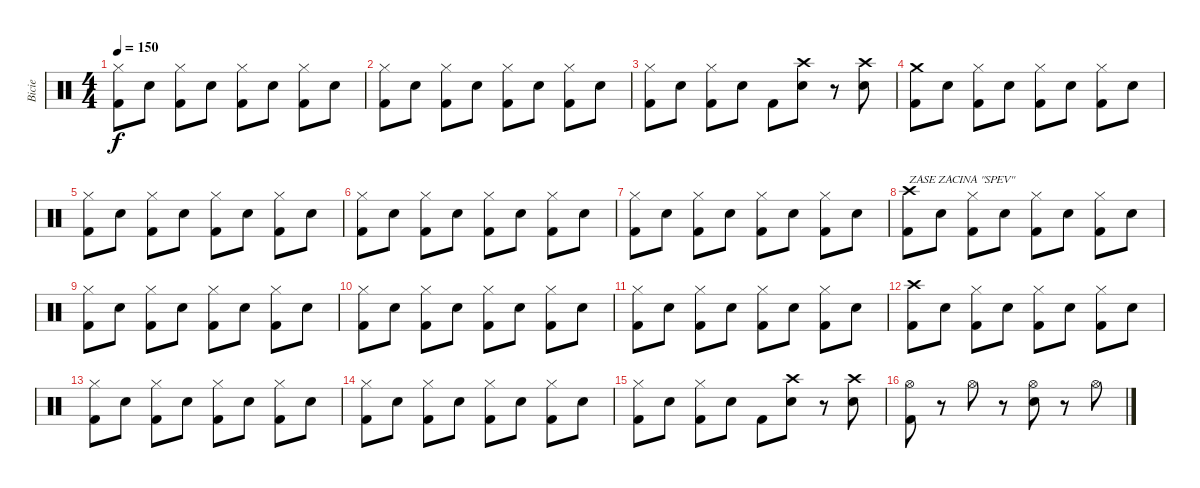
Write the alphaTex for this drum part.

\track ("Bicie" "Bicie") {instrument percussion}
\staff {score}
\articulation defaults
\ts (4 4)
\tempo 150
\clef neutral
\ks c
("Hi-Hat (closed)" "Kick (hit) 2").8{dy f} "Snare (hit) 2".8 ("Hi-Hat (closed)" "Kick (hit) 2").8 "Snare (hit) 2".8 ("Hi-Hat (closed)" "Kick (hit) 2").8 "Snare (hit) 2".8 ("Hi-Hat (closed)" "Kick (hit) 2").8 "Snare (hit) 2".8 |
("Hi-Hat (closed)" "Kick (hit) 2").8 "Snare (hit) 2".8 ("Hi-Hat (closed)" "Kick (hit) 2").8 "Snare (hit) 2".8 ("Hi-Hat (closed)" "Kick (hit) 2").8 "Snare (hit) 2".8 ("Hi-Hat (closed)" "Kick (hit) 2").8 "Snare (hit) 2".8 |
("Hi-Hat (closed)" "Kick (hit) 2").8 "Snare (hit) 2".8 ("Hi-Hat (closed)" "Kick (hit) 2").8 "Snare (hit) 2".8 "Kick (hit) 2".8 ("Crash high (hit)" "Snare (hit) 2").8 r.8 ("Crash high (hit)" "Snare (hit) 2").8 |
("Crash medium (hit)" "Kick (hit) 2").8 "Snare (hit) 2".8 ("Hi-Hat (closed)" "Kick (hit) 2").8 "Snare (hit) 2".8 ("Hi-Hat (closed)" "Kick (hit) 2").8 "Snare (hit) 2".8 ("Hi-Hat (closed)" "Kick (hit) 2").8 "Snare (hit) 2".8 |
("Hi-Hat (closed)" "Kick (hit) 2").8 "Snare (hit) 2".8 ("Hi-Hat (closed)" "Kick (hit) 2").8 "Snare (hit) 2".8 ("Hi-Hat (closed)" "Kick (hit) 2").8 "Snare (hit) 2".8 ("Hi-Hat (closed)" "Kick (hit) 2").8 "Snare (hit) 2".8 |
("Hi-Hat (closed)" "Kick (hit) 2").8 "Snare (hit) 2".8 ("Hi-Hat (closed)" "Kick (hit) 2").8 "Snare (hit) 2".8 ("Hi-Hat (closed)" "Kick (hit) 2").8 "Snare (hit) 2".8 ("Hi-Hat (closed)" "Kick (hit) 2").8 "Snare (hit) 2".8 |
("Hi-Hat (closed)" "Kick (hit) 2").8 "Snare (hit) 2".8 ("Hi-Hat (closed)" "Kick (hit) 2").8 "Snare (hit) 2".8 ("Hi-Hat (closed)" "Kick (hit) 2").8 "Snare (hit) 2".8 ("Hi-Hat (closed)" "Kick (hit) 2").8 "Snare (hit) 2".8 |
("Crash high (hit)" "Kick (hit) 2").8{txt "ZASE ZACINA \"SPEV\""} "Snare (hit) 2".8 ("Hi-Hat (closed)" "Kick (hit) 2").8 "Snare (hit) 2".8 ("Hi-Hat (closed)" "Kick (hit) 2").8 "Snare (hit) 2".8 ("Hi-Hat (closed)" "Kick (hit) 2").8 "Snare (hit) 2".8 |
("Hi-Hat (closed)" "Kick (hit) 2").8 "Snare (hit) 2".8 ("Hi-Hat (closed)" "Kick (hit) 2").8 "Snare (hit) 2".8 ("Hi-Hat (closed)" "Kick (hit) 2").8 "Snare (hit) 2".8 ("Hi-Hat (closed)" "Kick (hit) 2").8 "Snare (hit) 2".8 |
("Hi-Hat (closed)" "Kick (hit) 2").8 "Snare (hit) 2".8 ("Hi-Hat (closed)" "Kick (hit) 2").8 "Snare (hit) 2".8 ("Hi-Hat (closed)" "Kick (hit) 2").8 "Snare (hit) 2".8 ("Hi-Hat (closed)" "Kick (hit) 2").8 "Snare (hit) 2".8 |
("Hi-Hat (closed)" "Kick (hit) 2").8 "Snare (hit) 2".8 ("Hi-Hat (closed)" "Kick (hit) 2").8 "Snare (hit) 2".8 ("Hi-Hat (closed)" "Kick (hit) 2").8 "Snare (hit) 2".8 ("Hi-Hat (closed)" "Kick (hit) 2").8 "Snare (hit) 2".8 |
("Crash high (hit)" "Kick (hit) 2").8 "Snare (hit) 2".8 ("Hi-Hat (closed)" "Kick (hit) 2").8 "Snare (hit) 2".8 ("Hi-Hat (closed)" "Kick (hit) 2").8 "Snare (hit) 2".8 ("Hi-Hat (closed)" "Kick (hit) 2").8 "Snare (hit) 2".8 |
("Hi-Hat (closed)" "Kick (hit) 2").8 "Snare (hit) 2".8 ("Hi-Hat (closed)" "Kick (hit) 2").8 "Snare (hit) 2".8 ("Hi-Hat (closed)" "Kick (hit) 2").8 "Snare (hit) 2".8 ("Hi-Hat (closed)" "Kick (hit) 2").8 "Snare (hit) 2".8 |
("Hi-Hat (closed)" "Kick (hit) 2").8 "Snare (hit) 2".8 ("Hi-Hat (closed)" "Kick (hit) 2").8 "Snare (hit) 2".8 ("Hi-Hat (closed)" "Kick (hit) 2").8 "Snare (hit) 2".8 ("Hi-Hat (closed)" "Kick (hit) 2").8 "Snare (hit) 2".8 |
("Hi-Hat (closed)" "Kick (hit) 2").8 "Snare (hit) 2".8 ("Hi-Hat (closed)" "Kick (hit) 2").8 "Snare (hit) 2".8 "Kick (hit) 2".8 ("Crash high (hit)" "Snare (hit) 2").8 r.8 ("Crash high (hit)" "Snare (hit) 2").8 |
("Hi-Hat (open)" "Kick (hit) 2").8 r.8 "Hi-Hat (open)".8 r.8 ("Hi-Hat (open)" "Snare (hit) 2").8 r.8 "Hi-Hat (open)".8
